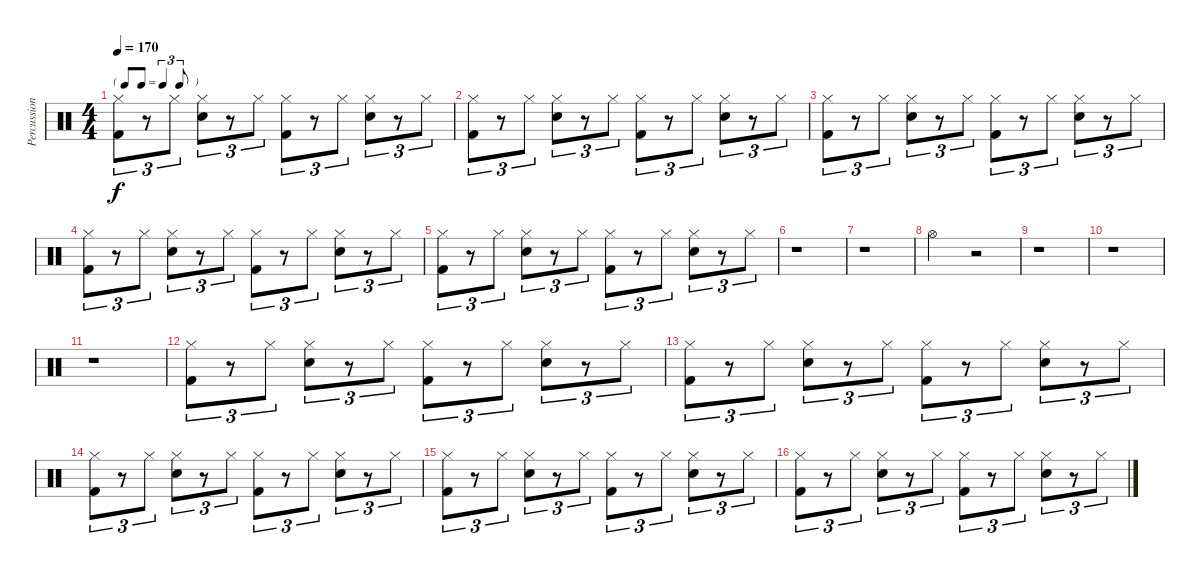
\track ("Percussion" "Percussion") {instrument percussion}
\staff {score}
\articulation defaults
\ts (4 4)
\tf triplet8th
\tempo 170
\clef neutral
\ks c
("Hi-Hat (closed)" "Kick (hit) 2").8{tu (3 2) dy f} r.8{tu (3 2)} "Hi-Hat (closed)".8{tu (3 2)} ("Hi-Hat (closed)" "Snare (hit) 2").8{tu (3 2)} r.8{tu (3 2)} "Hi-Hat (closed)".8{tu (3 2)} ("Hi-Hat (closed)" "Kick (hit) 2").8{tu (3 2)} r.8{tu (3 2)} "Hi-Hat (closed)".8{tu (3 2)} ("Hi-Hat (closed)" "Snare (hit) 2").8{tu (3 2)} r.8{tu (3 2)} "Hi-Hat (closed)".8{tu (3 2)} |
("Hi-Hat (closed)" "Kick (hit) 2").8{tu (3 2)} r.8{tu (3 2)} "Hi-Hat (closed)".8{tu (3 2)} ("Hi-Hat (closed)" "Snare (hit) 2").8{tu (3 2)} r.8{tu (3 2)} "Hi-Hat (closed)".8{tu (3 2)} ("Hi-Hat (closed)" "Kick (hit) 2").8{tu (3 2)} r.8{tu (3 2)} "Hi-Hat (closed)".8{tu (3 2)} ("Hi-Hat (closed)" "Snare (hit) 2").8{tu (3 2)} r.8{tu (3 2)} "Hi-Hat (closed)".8{tu (3 2)} |
("Hi-Hat (closed)" "Kick (hit) 2").8{tu (3 2)} r.8{tu (3 2)} "Hi-Hat (closed)".8{tu (3 2)} ("Hi-Hat (closed)" "Snare (hit) 2").8{tu (3 2)} r.8{tu (3 2)} "Hi-Hat (closed)".8{tu (3 2)} ("Hi-Hat (closed)" "Kick (hit) 2").8{tu (3 2)} r.8{tu (3 2)} "Hi-Hat (closed)".8{tu (3 2)} ("Hi-Hat (closed)" "Snare (hit) 2").8{tu (3 2)} r.8{tu (3 2)} "Hi-Hat (closed)".8{tu (3 2)} |
("Hi-Hat (closed)" "Kick (hit) 2").8{tu (3 2)} r.8{tu (3 2)} "Hi-Hat (closed)".8{tu (3 2)} ("Hi-Hat (closed)" "Snare (hit) 2").8{tu (3 2)} r.8{tu (3 2)} "Hi-Hat (closed)".8{tu (3 2)} ("Hi-Hat (closed)" "Kick (hit) 2").8{tu (3 2)} r.8{tu (3 2)} "Hi-Hat (closed)".8{tu (3 2)} ("Hi-Hat (closed)" "Snare (hit) 2").8{tu (3 2)} r.8{tu (3 2)} "Hi-Hat (closed)".8{tu (3 2)} |
("Hi-Hat (closed)" "Kick (hit) 2").8{tu (3 2)} r.8{tu (3 2)} "Hi-Hat (closed)".8{tu (3 2)} ("Hi-Hat (closed)" "Snare (hit) 2").8{tu (3 2)} r.8{tu (3 2)} "Hi-Hat (closed)".8{tu (3 2)} ("Hi-Hat (closed)" "Kick (hit) 2").8{tu (3 2)} r.8{tu (3 2)} "Hi-Hat (closed)".8{tu (3 2)} ("Hi-Hat (closed)" "Snare (hit) 2").8{tu (3 2)} r.8{tu (3 2)} "Hi-Hat (closed)".8{tu (3 2)} |
r.1 |
r.1 |
"Hi-Hat (open)".2 r.2 |
r.1 |
r.1 |
r.1 |
("Hi-Hat (closed)" "Kick (hit) 2").8{tu (3 2)} r.8{tu (3 2)} "Hi-Hat (closed)".8{tu (3 2)} ("Hi-Hat (closed)" "Snare (hit) 2").8{tu (3 2)} r.8{tu (3 2)} "Hi-Hat (closed)".8{tu (3 2)} ("Hi-Hat (closed)" "Kick (hit) 2").8{tu (3 2)} r.8{tu (3 2)} "Hi-Hat (closed)".8{tu (3 2)} ("Hi-Hat (closed)" "Snare (hit) 2").8{tu (3 2)} r.8{tu (3 2)} "Hi-Hat (closed)".8{tu (3 2)} |
("Hi-Hat (closed)" "Kick (hit) 2").8{tu (3 2)} r.8{tu (3 2)} "Hi-Hat (closed)".8{tu (3 2)} ("Hi-Hat (closed)" "Snare (hit) 2").8{tu (3 2)} r.8{tu (3 2)} "Hi-Hat (closed)".8{tu (3 2)} ("Hi-Hat (closed)" "Kick (hit) 2").8{tu (3 2)} r.8{tu (3 2)} "Hi-Hat (closed)".8{tu (3 2)} ("Hi-Hat (closed)" "Snare (hit) 2").8{tu (3 2)} r.8{tu (3 2)} "Hi-Hat (closed)".8{tu (3 2)} |
("Hi-Hat (closed)" "Kick (hit) 2").8{tu (3 2)} r.8{tu (3 2)} "Hi-Hat (closed)".8{tu (3 2)} ("Hi-Hat (closed)" "Snare (hit) 2").8{tu (3 2)} r.8{tu (3 2)} "Hi-Hat (closed)".8{tu (3 2)} ("Hi-Hat (closed)" "Kick (hit) 2").8{tu (3 2)} r.8{tu (3 2)} "Hi-Hat (closed)".8{tu (3 2)} ("Hi-Hat (closed)" "Snare (hit) 2").8{tu (3 2)} r.8{tu (3 2)} "Hi-Hat (closed)".8{tu (3 2)} |
("Hi-Hat (closed)" "Kick (hit) 2").8{tu (3 2)} r.8{tu (3 2)} "Hi-Hat (closed)".8{tu (3 2)} ("Hi-Hat (closed)" "Snare (hit) 2").8{tu (3 2)} r.8{tu (3 2)} "Hi-Hat (closed)".8{tu (3 2)} ("Hi-Hat (closed)" "Kick (hit) 2").8{tu (3 2)} r.8{tu (3 2)} "Hi-Hat (closed)".8{tu (3 2)} ("Hi-Hat (closed)" "Snare (hit) 2").8{tu (3 2)} r.8{tu (3 2)} "Hi-Hat (closed)".8{tu (3 2)} |
("Hi-Hat (closed)" "Kick (hit) 2").8{tu (3 2)} r.8{tu (3 2)} "Hi-Hat (closed)".8{tu (3 2)} ("Hi-Hat (closed)" "Snare (hit) 2").8{tu (3 2)} r.8{tu (3 2)} "Hi-Hat (closed)".8{tu (3 2)} ("Hi-Hat (closed)" "Kick (hit) 2").8{tu (3 2)} r.8{tu (3 2)} "Hi-Hat (closed)".8{tu (3 2)} ("Hi-Hat (closed)" "Snare (hit) 2").8{tu (3 2)} r.8{tu (3 2)} "Hi-Hat (closed)".8{tu (3 2)}
